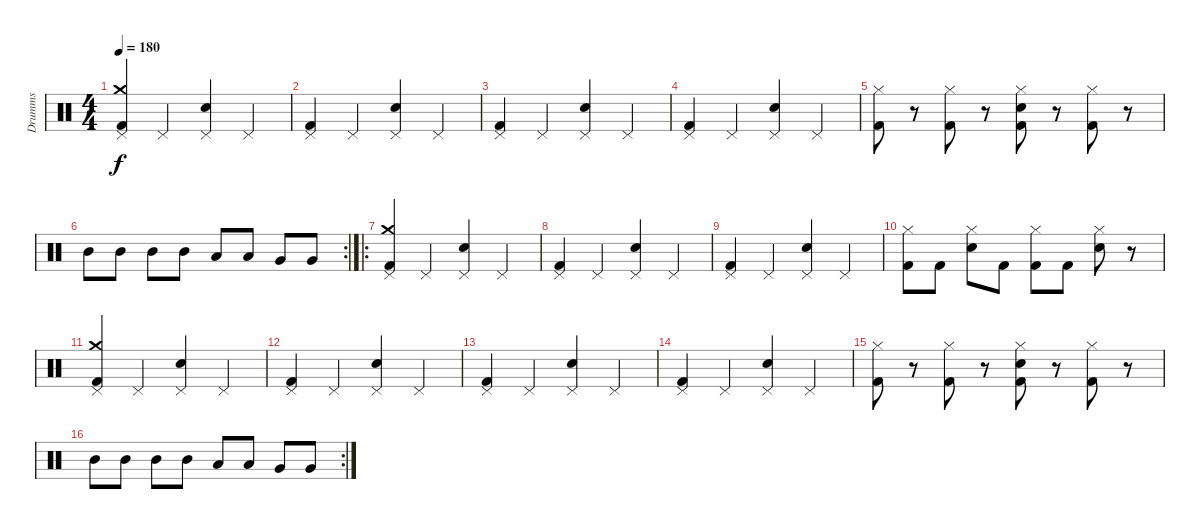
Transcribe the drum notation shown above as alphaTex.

\track ("Drumms" "Drumms") {instrument percussion}
\staff {score}
\articulation defaults
\ts (4 4)
\tempo 180
\clef neutral
\ks c
("Kick (hit) 2" "Crash medium (hit)" "Pedal Hi-Hat (hit)").4{dy f} "Pedal Hi-Hat (hit)".4 ("Snare (hit) 2" "Pedal Hi-Hat (hit)").4 "Pedal Hi-Hat (hit)".4 |
("Kick (hit) 2" "Pedal Hi-Hat (hit)").4 "Pedal Hi-Hat (hit)".4 ("Snare (hit) 2" "Pedal Hi-Hat (hit)").4 "Pedal Hi-Hat (hit)".4 |
("Kick (hit) 2" "Pedal Hi-Hat (hit)").4 "Pedal Hi-Hat (hit)".4 ("Snare (hit) 2" "Pedal Hi-Hat (hit)").4 "Pedal Hi-Hat (hit)".4 |
("Kick (hit) 2" "Pedal Hi-Hat (hit)").4 "Pedal Hi-Hat (hit)".4 ("Snare (hit) 2" "Pedal Hi-Hat (hit)").4 "Pedal Hi-Hat (hit)".4 |
("Kick (hit) 2" "Hi-Hat (closed)").8 r.8 ("Kick (hit) 2" "Hi-Hat (closed)").8 r.8 ("Kick (hit) 2" "Snare (hit) 2" "Hi-Hat (closed)").8 r.8 ("Kick (hit) 2" "Hi-Hat (closed)").8 r.8 |
\rc 2 "Mid Tom (hit)".8 "Mid Tom (hit)".8 "Mid Tom (hit)".8 "Mid Tom (hit)".8 "Low Tom (hit)".8 "Low Tom (hit)".8 "Very Low Tom (hit)".8 "Very Low Tom (hit)".8
|
\ro
("Kick (hit) 2" "Crash medium (hit)" "Pedal Hi-Hat (hit)").4 "Pedal Hi-Hat (hit)".4 ("Snare (hit) 2" "Pedal Hi-Hat (hit)").4 "Pedal Hi-Hat (hit)".4 |
("Kick (hit) 2" "Pedal Hi-Hat (hit)").4 "Pedal Hi-Hat (hit)".4 ("Snare (hit) 2" "Pedal Hi-Hat (hit)").4 "Pedal Hi-Hat (hit)".4 |
("Kick (hit) 2" "Pedal Hi-Hat (hit)").4 "Pedal Hi-Hat (hit)".4 ("Snare (hit) 2" "Pedal Hi-Hat (hit)").4 "Pedal Hi-Hat (hit)".4 |
("Kick (hit) 2" "Hi-Hat (closed)").8 "Kick (hit) 2".8 ("Snare (hit) 2" "Hi-Hat (closed)").8 "Kick (hit) 2".8 ("Kick (hit) 2" "Hi-Hat (closed)").8 "Kick (hit) 2".8 ("Snare (hit) 2" "Hi-Hat (closed)").8 r.8 |
("Kick (hit) 2" "Crash medium (hit)" "Pedal Hi-Hat (hit)").4 "Pedal Hi-Hat (hit)".4 ("Snare (hit) 2" "Pedal Hi-Hat (hit)").4 "Pedal Hi-Hat (hit)".4 |
("Kick (hit) 2" "Pedal Hi-Hat (hit)").4 "Pedal Hi-Hat (hit)".4 ("Snare (hit) 2" "Pedal Hi-Hat (hit)").4 "Pedal Hi-Hat (hit)".4 |
("Kick (hit) 2" "Pedal Hi-Hat (hit)").4 "Pedal Hi-Hat (hit)".4 ("Snare (hit) 2" "Pedal Hi-Hat (hit)").4 "Pedal Hi-Hat (hit)".4 |
("Kick (hit) 2" "Pedal Hi-Hat (hit)").4 "Pedal Hi-Hat (hit)".4 ("Snare (hit) 2" "Pedal Hi-Hat (hit)").4 "Pedal Hi-Hat (hit)".4 |
("Kick (hit) 2" "Hi-Hat (closed)").8 r.8 ("Kick (hit) 2" "Hi-Hat (closed)").8 r.8 ("Kick (hit) 2" "Snare (hit) 2" "Hi-Hat (closed)").8 r.8 ("Kick (hit) 2" "Hi-Hat (closed)").8 r.8 |
\rc 2 "Mid Tom (hit)".8 "Mid Tom (hit)".8 "Mid Tom (hit)".8 "Mid Tom (hit)".8 "Low Tom (hit)".8 "Low Tom (hit)".8 "Very Low Tom (hit)".8 "Very Low Tom (hit)".8
